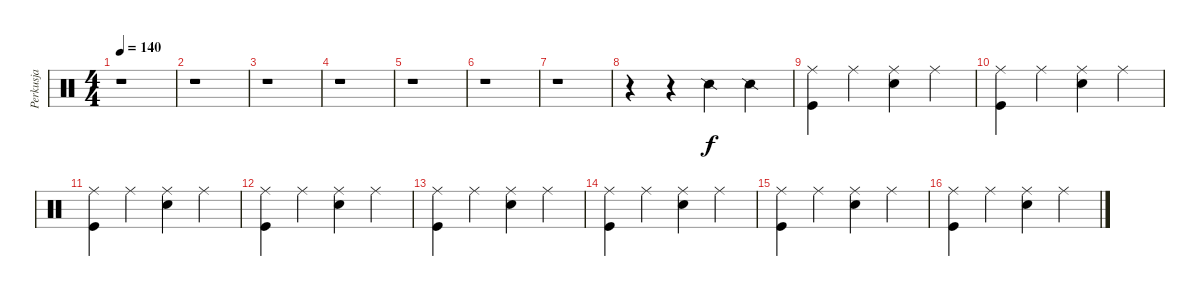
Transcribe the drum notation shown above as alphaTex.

\track ("Perkusja" "Perkusja") {instrument percussion}
\staff {score}
\articulation defaults
\ts (4 4)
\tempo 140
\clef neutral
\ks c
r.1{dy f} |
r.1 |
r.1 |
r.1 |
r.1 |
r.1 |
r.1 |
r.4 r.4 "Snare (side stick) 2".4 "Snare (side stick) 2".4 |
("Ride (middle)" "Kick (hit)").4 "Ride (middle)".4 ("Ride (middle)" "Snare (hit) 2").4 "Ride (middle)".4 |
("Ride (middle)" "Kick (hit)").4 "Ride (middle)".4 ("Ride (middle)" "Snare (hit) 2").4 "Ride (middle)".4 |
("Ride (middle)" "Kick (hit)").4 "Ride (middle)".4 ("Ride (middle)" "Snare (hit) 2").4 "Ride (middle)".4 |
("Ride (middle)" "Kick (hit)").4 "Ride (middle)".4 ("Ride (middle)" "Snare (hit) 2").4 "Ride (middle)".4 |
("Ride (middle)" "Kick (hit)").4 "Ride (middle)".4 ("Ride (middle)" "Snare (hit) 2").4 "Ride (middle)".4 |
("Ride (middle)" "Kick (hit)").4 "Ride (middle)".4 ("Ride (middle)" "Snare (hit) 2").4 "Ride (middle)".4 |
("Ride (middle)" "Kick (hit)").4 "Ride (middle)".4 ("Ride (middle)" "Snare (hit) 2").4 "Ride (middle)".4 |
("Ride (middle)" "Kick (hit)").4 "Ride (middle)".4 ("Ride (middle)" "Snare (hit) 2").4 "Ride (middle)".4
